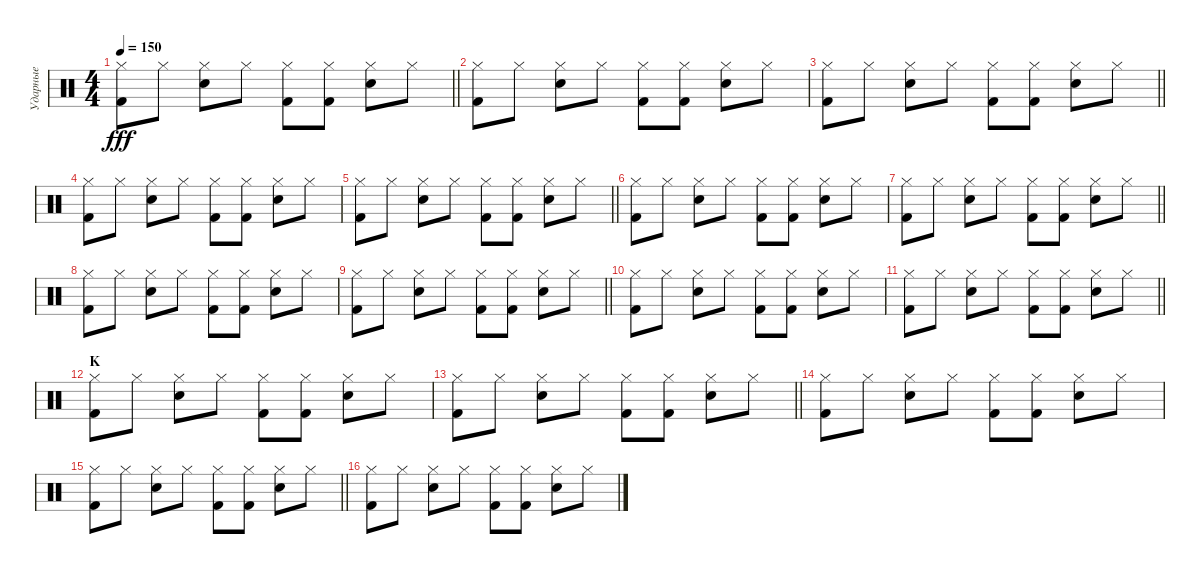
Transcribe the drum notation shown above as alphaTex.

\track ("Ударные" "Ударные") {instrument percussion}
\staff {score}
\articulation defaults
\ts (4 4)
\tempo 150
\clef neutral
\barLineRight lightlight
\ks c
("Kick (hit) 2" "Hi-Hat (closed)").8{dy fff} "Hi-Hat (closed)".8 ("Hi-Hat (closed)" "Electric Snare (hit)").8 "Hi-Hat (closed)".8 ("Kick (hit) 2" "Hi-Hat (closed)").8 ("Kick (hit) 2" "Hi-Hat (closed)").8 ("Hi-Hat (closed)" "Electric Snare (hit)").8 "Hi-Hat (closed)".8 |
("Kick (hit) 2" "Hi-Hat (closed)").8 "Hi-Hat (closed)".8 ("Hi-Hat (closed)" "Electric Snare (hit)").8 "Hi-Hat (closed)".8 ("Kick (hit) 2" "Hi-Hat (closed)").8 ("Kick (hit) 2" "Hi-Hat (closed)").8 ("Hi-Hat (closed)" "Electric Snare (hit)").8 "Hi-Hat (closed)".8 |
\barLineRight lightlight
("Kick (hit) 2" "Hi-Hat (closed)").8 "Hi-Hat (closed)".8 ("Hi-Hat (closed)" "Electric Snare (hit)").8 "Hi-Hat (closed)".8 ("Kick (hit) 2" "Hi-Hat (closed)").8 ("Kick (hit) 2" "Hi-Hat (closed)").8 ("Hi-Hat (closed)" "Electric Snare (hit)").8 "Hi-Hat (closed)".8 |
("Kick (hit) 2" "Hi-Hat (closed)").8 "Hi-Hat (closed)".8 ("Hi-Hat (closed)" "Electric Snare (hit)").8 "Hi-Hat (closed)".8 ("Kick (hit) 2" "Hi-Hat (closed)").8 ("Kick (hit) 2" "Hi-Hat (closed)").8 ("Hi-Hat (closed)" "Electric Snare (hit)").8 "Hi-Hat (closed)".8 |
\barLineRight lightlight
("Kick (hit) 2" "Hi-Hat (closed)").8 "Hi-Hat (closed)".8 ("Hi-Hat (closed)" "Electric Snare (hit)").8 "Hi-Hat (closed)".8 ("Kick (hit) 2" "Hi-Hat (closed)").8 ("Kick (hit) 2" "Hi-Hat (closed)").8 ("Hi-Hat (closed)" "Electric Snare (hit)").8 "Hi-Hat (closed)".8 |
("Kick (hit) 2" "Hi-Hat (closed)").8 "Hi-Hat (closed)".8 ("Hi-Hat (closed)" "Electric Snare (hit)").8 "Hi-Hat (closed)".8 ("Kick (hit) 2" "Hi-Hat (closed)").8 ("Kick (hit) 2" "Hi-Hat (closed)").8 ("Hi-Hat (closed)" "Electric Snare (hit)").8 "Hi-Hat (closed)".8 |
\barLineRight lightlight
("Kick (hit) 2" "Hi-Hat (closed)").8 "Hi-Hat (closed)".8 ("Hi-Hat (closed)" "Electric Snare (hit)").8 "Hi-Hat (closed)".8 ("Kick (hit) 2" "Hi-Hat (closed)").8 ("Kick (hit) 2" "Hi-Hat (closed)").8 ("Hi-Hat (closed)" "Electric Snare (hit)").8 "Hi-Hat (closed)".8 |
("Kick (hit) 2" "Hi-Hat (closed)").8 "Hi-Hat (closed)".8 ("Hi-Hat (closed)" "Electric Snare (hit)").8 "Hi-Hat (closed)".8 ("Kick (hit) 2" "Hi-Hat (closed)").8 ("Kick (hit) 2" "Hi-Hat (closed)").8 ("Hi-Hat (closed)" "Electric Snare (hit)").8 "Hi-Hat (closed)".8 |
\barLineRight lightlight
("Kick (hit) 2" "Hi-Hat (closed)").8 "Hi-Hat (closed)".8 ("Hi-Hat (closed)" "Electric Snare (hit)").8 "Hi-Hat (closed)".8 ("Kick (hit) 2" "Hi-Hat (closed)").8 ("Kick (hit) 2" "Hi-Hat (closed)").8 ("Hi-Hat (closed)" "Electric Snare (hit)").8 "Hi-Hat (closed)".8 |
("Kick (hit) 2" "Hi-Hat (closed)").8 "Hi-Hat (closed)".8 ("Hi-Hat (closed)" "Electric Snare (hit)").8 "Hi-Hat (closed)".8 ("Kick (hit) 2" "Hi-Hat (closed)").8 ("Kick (hit) 2" "Hi-Hat (closed)").8 ("Hi-Hat (closed)" "Electric Snare (hit)").8 "Hi-Hat (closed)".8 |
\barLineRight lightlight
("Kick (hit) 2" "Hi-Hat (closed)").8 "Hi-Hat (closed)".8 ("Hi-Hat (closed)" "Electric Snare (hit)").8 "Hi-Hat (closed)".8 ("Kick (hit) 2" "Hi-Hat (closed)").8 ("Kick (hit) 2" "Hi-Hat (closed)").8 ("Hi-Hat (closed)" "Electric Snare (hit)").8 "Hi-Hat (closed)".8 |
\section ("" "K")
("Kick (hit) 2" "Hi-Hat (closed)").8 "Hi-Hat (closed)".8 ("Hi-Hat (closed)" "Electric Snare (hit)").8 "Hi-Hat (closed)".8 ("Kick (hit) 2" "Hi-Hat (closed)").8 ("Kick (hit) 2" "Hi-Hat (closed)").8 ("Hi-Hat (closed)" "Electric Snare (hit)").8 "Hi-Hat (closed)".8 |
\barLineRight lightlight
("Kick (hit) 2" "Hi-Hat (closed)").8 "Hi-Hat (closed)".8 ("Hi-Hat (closed)" "Electric Snare (hit)").8 "Hi-Hat (closed)".8 ("Kick (hit) 2" "Hi-Hat (closed)").8 ("Kick (hit) 2" "Hi-Hat (closed)").8 ("Hi-Hat (closed)" "Electric Snare (hit)").8 "Hi-Hat (closed)".8 |
("Kick (hit) 2" "Hi-Hat (closed)").8 "Hi-Hat (closed)".8 ("Hi-Hat (closed)" "Electric Snare (hit)").8 "Hi-Hat (closed)".8 ("Kick (hit) 2" "Hi-Hat (closed)").8 ("Kick (hit) 2" "Hi-Hat (closed)").8 ("Hi-Hat (closed)" "Electric Snare (hit)").8 "Hi-Hat (closed)".8 |
\barLineRight lightlight
("Kick (hit) 2" "Hi-Hat (closed)").8 "Hi-Hat (closed)".8 ("Hi-Hat (closed)" "Electric Snare (hit)").8 "Hi-Hat (closed)".8 ("Kick (hit) 2" "Hi-Hat (closed)").8 ("Kick (hit) 2" "Hi-Hat (closed)").8 ("Hi-Hat (closed)" "Electric Snare (hit)").8 "Hi-Hat (closed)".8 |
("Kick (hit) 2" "Hi-Hat (closed)").8 "Hi-Hat (closed)".8 ("Hi-Hat (closed)" "Electric Snare (hit)").8 "Hi-Hat (closed)".8 ("Kick (hit) 2" "Hi-Hat (closed)").8 ("Kick (hit) 2" "Hi-Hat (closed)").8 ("Hi-Hat (closed)" "Electric Snare (hit)").8 "Hi-Hat (closed)".8
